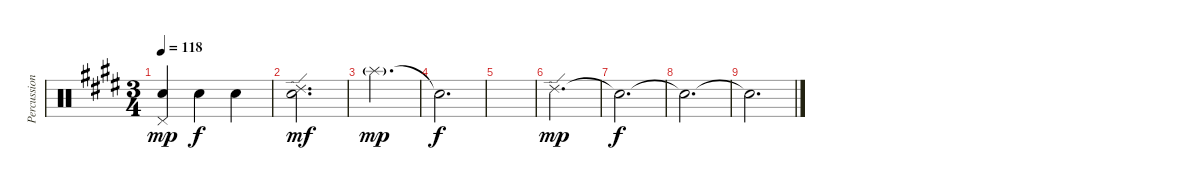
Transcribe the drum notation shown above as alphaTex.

\track ("Percussion" "Percussion") {instrument percussion}
\staff {score}
\articulation defaults
\ts (3 4)
\tempo 118
\clef neutral
\ks e
("Hand Clap (hit)" "Pedal Hi-Hat (hit)").4{dy mp} "Snare (hit) 2".4{dy f} "Snare (hit) 2".4 |
("Hand Clap (hit)" "Ride (edge) 2").2{d dy mf} |
"Splash (hit)"{g}.2{d dy mp} |
"Snare (hit)"{t}.2{d dy f} |
|
"Ride (edge) 2".2{d dy mp} |
"Snare (hit)"{t}.2{d dy f} |
"Snare (hit)"{t}.2{d} |
"Snare (hit)"{t}.2{d}
